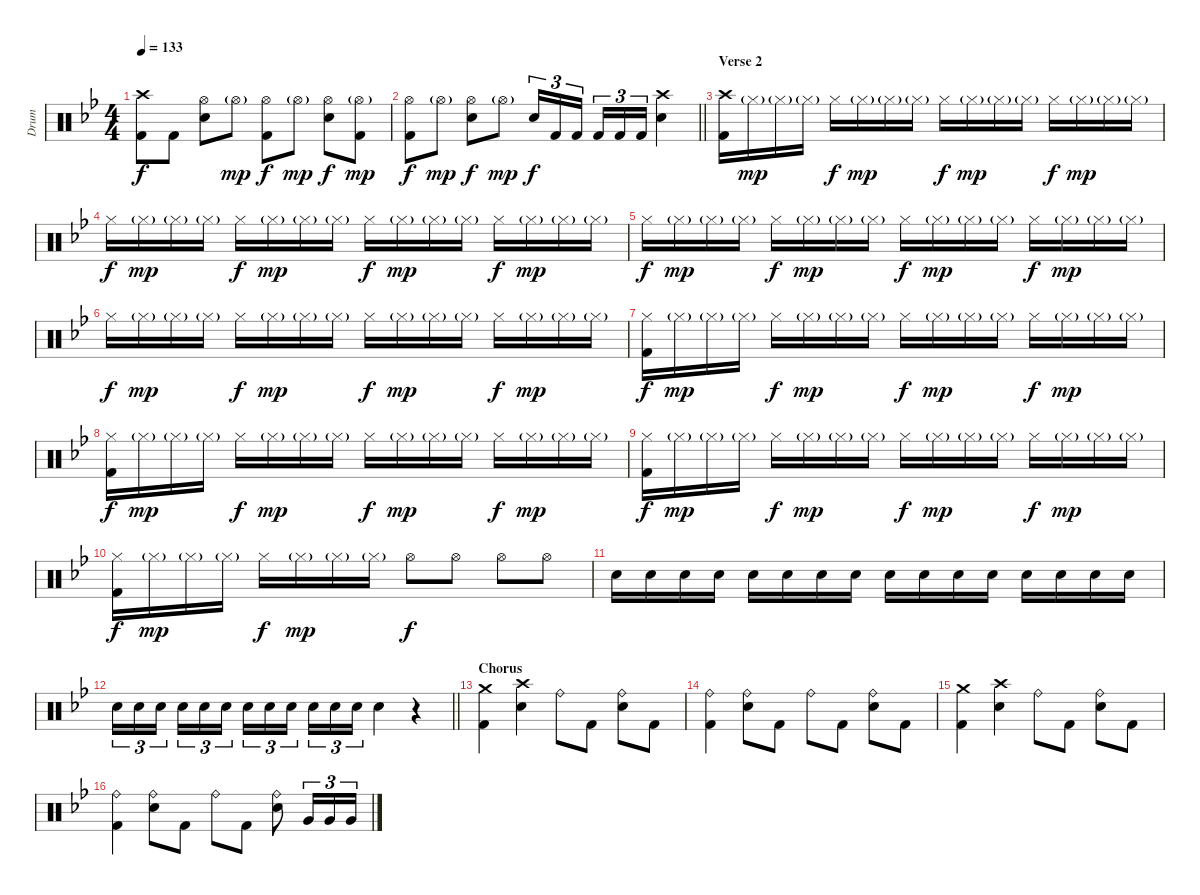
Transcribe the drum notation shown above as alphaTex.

\track ("Drum" "Drum") {instrument percussion}
\staff {score}
\articulation defaults
\ts (4 4)
\tempo 133
\clef neutral
\ks bb
("Crash high (hit)" "Kick (hit) 2").8{dy f} "Kick (hit) 2".8 ("Hi-Hat (open)" "Snare (hit) 2").8 "Hi-Hat (open)"{g}.8{dy mp} ("Hi-Hat (open)" "Kick (hit) 2").8{dy f} "Hi-Hat (open)"{g}.8{dy mp} ("Hi-Hat (open)" "Snare (hit) 2").8{dy f} ("Hi-Hat (open)"{g} "Kick (hit) 2").8{dy mp} |
\barLineRight lightlight
("Hi-Hat (open)" "Kick (hit) 2").8{dy f} "Hi-Hat (open)"{g}.8{dy mp} ("Hi-Hat (open)" "Snare (hit) 2").8{dy f} "Hi-Hat (open)"{g}.8{dy mp} "Snare (hit) 2".16{tu (3 2) dy f} "Kick (hit) 2".16{tu (3 2)} "Kick (hit) 2".16{tu (3 2) beam splitsecondary} "Kick (hit) 2".16{tu (3 2)} "Kick (hit) 2".16{tu (3 2)} "Kick (hit) 2".16{tu (3 2)} ("Crash high (hit)" "Snare (hit) 2").4 |
\section ("" "Verse 2")
("Crash high (hit)" "Kick (hit) 2").16 "Hi-Hat (closed)"{g}.16{dy mp} "Hi-Hat (closed)"{g}.16 "Hi-Hat (closed)"{g}.16 "Hi-Hat (closed)".16{dy f} "Hi-Hat (closed)"{g}.16{dy mp} "Hi-Hat (closed)"{g}.16 "Hi-Hat (closed)"{g}.16 "Hi-Hat (closed)".16{dy f} "Hi-Hat (closed)"{g}.16{dy mp} "Hi-Hat (closed)"{g}.16 "Hi-Hat (closed)"{g}.16 "Hi-Hat (closed)".16{dy f} "Hi-Hat (closed)"{g}.16{dy mp} "Hi-Hat (closed)"{g}.16 "Hi-Hat (closed)"{g}.16 |
"Hi-Hat (closed)".16{dy f} "Hi-Hat (closed)"{g}.16{dy mp} "Hi-Hat (closed)"{g}.16 "Hi-Hat (closed)"{g}.16 "Hi-Hat (closed)".16{dy f} "Hi-Hat (closed)"{g}.16{dy mp} "Hi-Hat (closed)"{g}.16 "Hi-Hat (closed)"{g}.16 "Hi-Hat (closed)".16{dy f} "Hi-Hat (closed)"{g}.16{dy mp} "Hi-Hat (closed)"{g}.16 "Hi-Hat (closed)"{g}.16 "Hi-Hat (closed)".16{dy f} "Hi-Hat (closed)"{g}.16{dy mp} "Hi-Hat (closed)"{g}.16 "Hi-Hat (closed)"{g}.16 |
"Hi-Hat (closed)".16{dy f} "Hi-Hat (closed)"{g}.16{dy mp} "Hi-Hat (closed)"{g}.16 "Hi-Hat (closed)"{g}.16 "Hi-Hat (closed)".16{dy f} "Hi-Hat (closed)"{g}.16{dy mp} "Hi-Hat (closed)"{g}.16 "Hi-Hat (closed)"{g}.16 "Hi-Hat (closed)".16{dy f} "Hi-Hat (closed)"{g}.16{dy mp} "Hi-Hat (closed)"{g}.16 "Hi-Hat (closed)"{g}.16 "Hi-Hat (closed)".16{dy f} "Hi-Hat (closed)"{g}.16{dy mp} "Hi-Hat (closed)"{g}.16 "Hi-Hat (closed)"{g}.16 |
"Hi-Hat (closed)".16{dy f} "Hi-Hat (closed)"{g}.16{dy mp} "Hi-Hat (closed)"{g}.16 "Hi-Hat (closed)"{g}.16 "Hi-Hat (closed)".16{dy f} "Hi-Hat (closed)"{g}.16{dy mp} "Hi-Hat (closed)"{g}.16 "Hi-Hat (closed)"{g}.16 "Hi-Hat (closed)".16{dy f} "Hi-Hat (closed)"{g}.16{dy mp} "Hi-Hat (closed)"{g}.16 "Hi-Hat (closed)"{g}.16 "Hi-Hat (closed)".16{dy f} "Hi-Hat (closed)"{g}.16{dy mp} "Hi-Hat (closed)"{g}.16 "Hi-Hat (closed)"{g}.16 |
("Hi-Hat (closed)" "Kick (hit) 2").16{dy f} "Hi-Hat (closed)"{g}.16{dy mp} "Hi-Hat (closed)"{g}.16 "Hi-Hat (closed)"{g}.16 "Hi-Hat (closed)".16{dy f} "Hi-Hat (closed)"{g}.16{dy mp} "Hi-Hat (closed)"{g}.16 "Hi-Hat (closed)"{g}.16 "Hi-Hat (closed)".16{dy f} "Hi-Hat (closed)"{g}.16{dy mp} "Hi-Hat (closed)"{g}.16 "Hi-Hat (closed)"{g}.16 "Hi-Hat (closed)".16{dy f} "Hi-Hat (closed)"{g}.16{dy mp} "Hi-Hat (closed)"{g}.16 "Hi-Hat (closed)"{g}.16 |
("Hi-Hat (closed)" "Kick (hit) 2").16{dy f} "Hi-Hat (closed)"{g}.16{dy mp} "Hi-Hat (closed)"{g}.16 "Hi-Hat (closed)"{g}.16 "Hi-Hat (closed)".16{dy f} "Hi-Hat (closed)"{g}.16{dy mp} "Hi-Hat (closed)"{g}.16 "Hi-Hat (closed)"{g}.16 "Hi-Hat (closed)".16{dy f} "Hi-Hat (closed)"{g}.16{dy mp} "Hi-Hat (closed)"{g}.16 "Hi-Hat (closed)"{g}.16 "Hi-Hat (closed)".16{dy f} "Hi-Hat (closed)"{g}.16{dy mp} "Hi-Hat (closed)"{g}.16 "Hi-Hat (closed)"{g}.16 |
("Hi-Hat (closed)" "Kick (hit) 2").16{dy f} "Hi-Hat (closed)"{g}.16{dy mp} "Hi-Hat (closed)"{g}.16 "Hi-Hat (closed)"{g}.16 "Hi-Hat (closed)".16{dy f} "Hi-Hat (closed)"{g}.16{dy mp} "Hi-Hat (closed)"{g}.16 "Hi-Hat (closed)"{g}.16 "Hi-Hat (closed)".16{dy f} "Hi-Hat (closed)"{g}.16{dy mp} "Hi-Hat (closed)"{g}.16 "Hi-Hat (closed)"{g}.16 "Hi-Hat (closed)".16{dy f} "Hi-Hat (closed)"{g}.16{dy mp} "Hi-Hat (closed)"{g}.16 "Hi-Hat (closed)"{g}.16 |
("Hi-Hat (closed)" "Kick (hit) 2").16{dy f} "Hi-Hat (closed)"{g}.16{dy mp} "Hi-Hat (closed)"{g}.16 "Hi-Hat (closed)"{g}.16 "Hi-Hat (closed)".16{dy f} "Hi-Hat (closed)"{g}.16{dy mp} "Hi-Hat (closed)"{g}.16 "Hi-Hat (closed)"{g}.16 "Hi-Hat (open)".8{dy f} "Hi-Hat (open)".8 "Hi-Hat (open)".8 "Hi-Hat (open)".8 |
"Snare (hit) 2".16 "Snare (hit) 2".16 "Snare (hit) 2".16 "Snare (hit) 2".16 "Snare (hit) 2".16 "Snare (hit) 2".16 "Snare (hit) 2".16 "Snare (hit) 2".16 "Snare (hit) 2".16 "Snare (hit) 2".16 "Snare (hit) 2".16 "Snare (hit) 2".16 "Snare (hit) 2".16 "Snare (hit) 2".16 "Snare (hit) 2".16 "Snare (hit) 2".16 |
\barLineRight lightlight "Snare (hit) 2".16{tu (3 2)} "Snare (hit) 2".16{tu (3 2)} "Snare (hit) 2".16{tu (3 2) beam splitsecondary} "Snare (hit) 2".16{tu (3 2)} "Snare (hit) 2".16{tu (3 2)} "Snare (hit) 2".16{tu (3 2)} "Snare (hit) 2".16{tu (3 2)} "Snare (hit) 2".16{tu (3 2)} "Snare (hit) 2".16{tu (3 2) beam splitsecondary} "Snare (hit) 2".16{tu (3 2)} "Snare (hit) 2".16{tu (3 2)} "Snare (hit) 2".16{tu (3 2)} "Snare (hit) 2".4
r.4 |
\section ("" "Chorus")
("Crash medium (hit)" "Kick (hit) 2").4 ("Crash high (hit)" "Snare (hit) 2").4 "Ride (bell)".8 "Kick (hit) 2".8 ("Ride (bell)" "Snare (hit) 2").8 "Kick (hit) 2".8 |
("Ride (bell)" "Kick (hit) 2").4 ("Ride (bell)" "Snare (hit) 2").8 "Kick (hit) 2".8 "Ride (bell)".8 "Kick (hit) 2".8 ("Ride (bell)" "Snare (hit) 2").8 "Kick (hit) 2".8 |
("Crash medium (hit)" "Kick (hit) 2").4 ("Crash high (hit)" "Snare (hit) 2").4 "Ride (bell)".8 "Kick (hit) 2".8 ("Ride (bell)" "Snare (hit) 2").8 "Kick (hit) 2".8 |
("Ride (bell)" "Kick (hit) 2").4 ("Ride (bell)" "Snare (hit) 2").8 "Kick (hit) 2".8 "Ride (bell)".8 "Kick (hit) 2".8 ("Ride (bell)" "Snare (hit) 2").8 "Very Low Tom (hit)".16{tu (3 2)} "Very Low Tom (hit)".16{tu (3 2)} "Very Low Tom (hit)".16{tu (3 2)}
